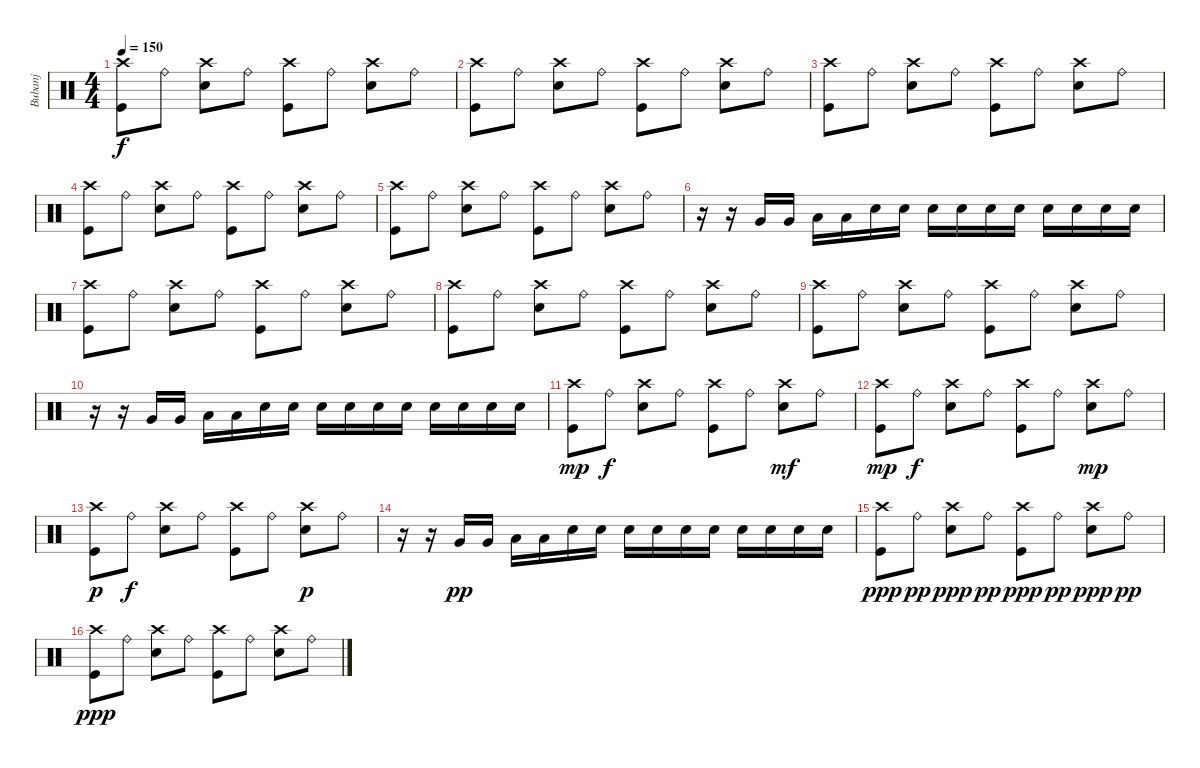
\track ("Bubanj" "Bubanj") {instrument percussion}
\staff {score}
\articulation defaults
\ts (4 4)
\tempo 150
\clef neutral
\ks c
("Crash high (hit)" "Kick (hit)").8{dy f} "Ride (bell)".8 ("Crash high (hit)" "Electric Snare (hit)").8 "Ride (bell)".8 ("Crash high (hit)" "Kick (hit)").8 "Ride (bell)".8 ("Crash high (hit)" "Electric Snare (hit)").8 "Ride (bell)".8 |
("Crash high (hit)" "Kick (hit)").8 "Ride (bell)".8 ("Crash high (hit)" "Electric Snare (hit)").8 "Ride (bell)".8 ("Crash high (hit)" "Kick (hit)").8 "Ride (bell)".8 ("Crash high (hit)" "Electric Snare (hit)").8 "Ride (bell)".8 |
("Crash high (hit)" "Kick (hit)").8 "Ride (bell)".8 ("Crash high (hit)" "Electric Snare (hit)").8 "Ride (bell)".8 ("Crash high (hit)" "Kick (hit)").8 "Ride (bell)".8 ("Crash high (hit)" "Electric Snare (hit)").8 "Ride (bell)".8 |
("Crash high (hit)" "Kick (hit)").8 "Ride (bell)".8 ("Crash high (hit)" "Electric Snare (hit)").8 "Ride (bell)".8 ("Crash high (hit)" "Kick (hit)").8 "Ride (bell)".8 ("Crash high (hit)" "Electric Snare (hit)").8 "Ride (bell)".8 |
("Crash high (hit)" "Kick (hit)").8 "Ride (bell)".8 ("Crash high (hit)" "Electric Snare (hit)").8 "Ride (bell)".8 ("Crash high (hit)" "Kick (hit)").8 "Ride (bell)".8 ("Crash high (hit)" "Electric Snare (hit)").8 "Ride (bell)".8 |
r.16 r.16 "Very Low Tom (hit)".16 "Very Low Tom (hit)".16 "Low Tom (hit)".16 "Low Tom (hit)".16 "Electric Snare (hit)".16 "Electric Snare (hit)".16 "Electric Snare (hit)".16 "Electric Snare (hit)".16 "Electric Snare (hit)".16 "Electric Snare (hit)".16 "Electric Snare (hit)".16 "Electric Snare (hit)".16 "Electric Snare (hit)".16 "Electric Snare (hit)".16 |
("Crash high (hit)" "Kick (hit)").8 "Ride (bell)".8 ("Crash high (hit)" "Electric Snare (hit)").8 "Ride (bell)".8 ("Crash high (hit)" "Kick (hit)").8 "Ride (bell)".8 ("Crash high (hit)" "Electric Snare (hit)").8 "Ride (bell)".8 |
("Crash high (hit)" "Kick (hit)").8 "Ride (bell)".8 ("Crash high (hit)" "Electric Snare (hit)").8 "Ride (bell)".8 ("Crash high (hit)" "Kick (hit)").8 "Ride (bell)".8 ("Crash high (hit)" "Electric Snare (hit)").8 "Ride (bell)".8 |
("Crash high (hit)" "Kick (hit)").8 "Ride (bell)".8 ("Crash high (hit)" "Electric Snare (hit)").8 "Ride (bell)".8 ("Crash high (hit)" "Kick (hit)").8 "Ride (bell)".8 ("Crash high (hit)" "Electric Snare (hit)").8 "Ride (bell)".8 |
r.16 r.16 "Very Low Tom (hit)".16 "Very Low Tom (hit)".16 "Low Tom (hit)".16 "Low Tom (hit)".16 "Electric Snare (hit)".16 "Electric Snare (hit)".16 "Electric Snare (hit)".16 "Electric Snare (hit)".16 "Electric Snare (hit)".16 "Electric Snare (hit)".16 "Electric Snare (hit)".16 "Electric Snare (hit)".16 "Electric Snare (hit)".16 "Electric Snare (hit)".16 |
("Crash high (hit)" "Kick (hit)").8{dy mp} "Ride (bell)".8{dy f} ("Crash high (hit)" "Electric Snare (hit)").8 "Ride (bell)".8 ("Crash high (hit)" "Kick (hit)").8 "Ride (bell)".8 ("Crash high (hit)" "Electric Snare (hit)").8{dy mf} "Ride (bell)".8 |
("Crash high (hit)" "Kick (hit)").8{dy mp} "Ride (bell)".8{dy f} ("Crash high (hit)" "Electric Snare (hit)").8 "Ride (bell)".8 ("Crash high (hit)" "Kick (hit)").8 "Ride (bell)".8 ("Crash high (hit)" "Electric Snare (hit)").8{dy mp} "Ride (bell)".8 |
("Crash high (hit)" "Kick (hit)").8{dy p} "Ride (bell)".8{dy f} ("Crash high (hit)" "Electric Snare (hit)").8 "Ride (bell)".8 ("Crash high (hit)" "Kick (hit)").8 "Ride (bell)".8 ("Crash high (hit)" "Electric Snare (hit)").8{dy p} "Ride (bell)".8 |
r.16 r.16 "Very Low Tom (hit)".16{dy pp} "Very Low Tom (hit)".16 "Low Tom (hit)".16 "Low Tom (hit)".16 "Electric Snare (hit)".16 "Electric Snare (hit)".16 "Electric Snare (hit)".16 "Electric Snare (hit)".16 "Electric Snare (hit)".16 "Electric Snare (hit)".16 "Electric Snare (hit)".16 "Electric Snare (hit)".16 "Electric Snare (hit)".16 "Electric Snare (hit)".16 |
("Crash high (hit)" "Kick (hit)").8{dy ppp} "Ride (bell)".8{dy pp} ("Crash high (hit)" "Electric Snare (hit)").8{dy ppp} "Ride (bell)".8{dy pp} ("Crash high (hit)" "Kick (hit)").8{dy ppp} "Ride (bell)".8{dy pp} ("Crash high (hit)" "Electric Snare (hit)").8{dy ppp} "Ride (bell)".8{dy pp} |
("Crash high (hit)" "Kick (hit)").8{dy ppp} "Ride (bell)".8 ("Crash high (hit)" "Electric Snare (hit)").8 "Ride (bell)".8 ("Crash high (hit)" "Kick (hit)").8 "Ride (bell)".8 ("Crash high (hit)" "Electric Snare (hit)").8 "Ride (bell)".8
